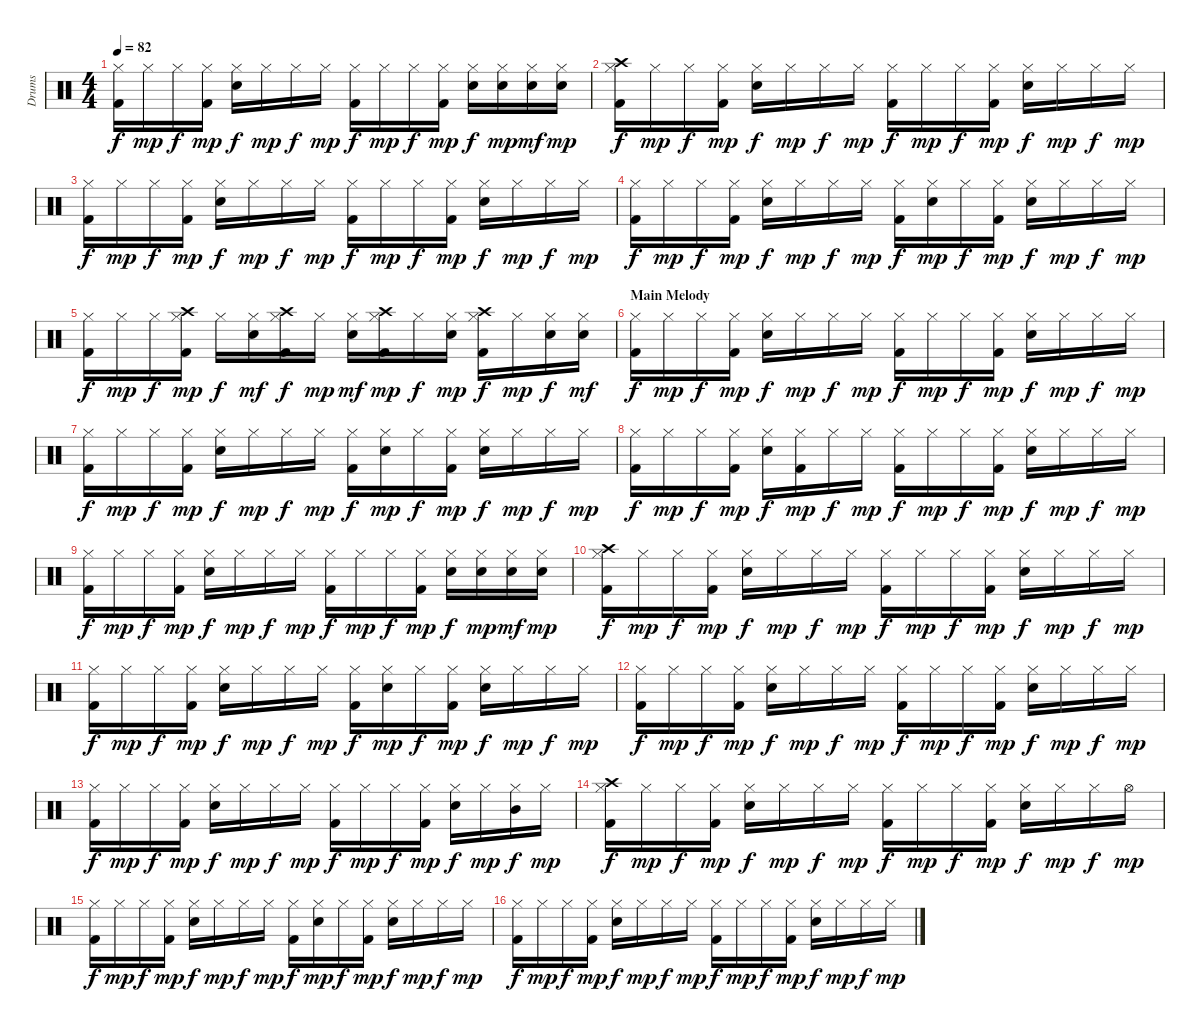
\track ("Drums" "Drums") {instrument percussion}
\staff {score}
\articulation defaults
\ts (4 4)
\tempo 82
\clef neutral
\ks c
("Hi-Hat (closed)" "Kick (hit) 2").16{dy f} "Hi-Hat (closed)".16{dy mp} "Hi-Hat (closed)".16{dy f} ("Hi-Hat (closed)" "Kick (hit) 2").16{dy mp} ("Hi-Hat (closed)" "Snare (hit) 2").16{dy f} "Hi-Hat (closed)".16{dy mp} "Hi-Hat (closed)".16{dy f} "Hi-Hat (closed)".16{dy mp} ("Hi-Hat (closed)" "Kick (hit) 2").16{dy f} "Hi-Hat (closed)".16{dy mp} "Hi-Hat (closed)".16{dy f} ("Hi-Hat (closed)" "Kick (hit) 2").16{dy mp} ("Hi-Hat (closed)" "Snare (hit) 2").16{dy f} ("Hi-Hat (closed)" "Snare (hit) 2").16{dy mp} ("Hi-Hat (closed)" "Snare (hit) 2").16{dy mf} ("Hi-Hat (closed)" "Snare (hit) 2").16{dy mp} |
("Hi-Hat (closed)" "Crash high (hit)" "Kick (hit) 2").16{dy f} "Hi-Hat (closed)".16{dy mp} "Hi-Hat (closed)".16{dy f} ("Hi-Hat (closed)" "Kick (hit) 2").16{dy mp} ("Hi-Hat (closed)" "Snare (hit) 2").16{dy f} "Hi-Hat (closed)".16{dy mp} "Hi-Hat (closed)".16{dy f} "Hi-Hat (closed)".16{dy mp} ("Hi-Hat (closed)" "Kick (hit) 2").16{dy f} "Hi-Hat (closed)".16{dy mp} "Hi-Hat (closed)".16{dy f} ("Hi-Hat (closed)" "Kick (hit) 2").16{dy mp} ("Hi-Hat (closed)" "Snare (hit) 2").16{dy f} "Hi-Hat (closed)".16{dy mp} "Hi-Hat (closed)".16{dy f} "Hi-Hat (closed)".16{dy mp} |
("Hi-Hat (closed)" "Kick (hit) 2").16{dy f} "Hi-Hat (closed)".16{dy mp} "Hi-Hat (closed)".16{dy f} ("Hi-Hat (closed)" "Kick (hit) 2").16{dy mp} ("Hi-Hat (closed)" "Snare (hit) 2").16{dy f} "Hi-Hat (closed)".16{dy mp} "Hi-Hat (closed)".16{dy f} "Hi-Hat (closed)".16{dy mp} ("Hi-Hat (closed)" "Kick (hit) 2").16{dy f} "Hi-Hat (closed)".16{dy mp} "Hi-Hat (closed)".16{dy f} ("Hi-Hat (closed)" "Kick (hit) 2").16{dy mp} ("Hi-Hat (closed)" "Snare (hit) 2").16{dy f} "Hi-Hat (closed)".16{dy mp} "Hi-Hat (closed)".16{dy f} "Hi-Hat (closed)".16{dy mp} |
("Hi-Hat (closed)" "Kick (hit) 2").16{dy f} "Hi-Hat (closed)".16{dy mp} "Hi-Hat (closed)".16{dy f} ("Hi-Hat (closed)" "Kick (hit) 2").16{dy mp} ("Hi-Hat (closed)" "Snare (hit) 2").16{dy f} "Hi-Hat (closed)".16{dy mp} "Hi-Hat (closed)".16{dy f} "Hi-Hat (closed)".16{dy mp} ("Hi-Hat (closed)" "Kick (hit) 2").16{dy f} ("Hi-Hat (closed)" "Snare (hit) 2").16{dy mp} "Hi-Hat (closed)".16{dy f} ("Hi-Hat (closed)" "Kick (hit) 2").16{dy mp} ("Hi-Hat (closed)" "Snare (hit) 2").16{dy f} "Hi-Hat (closed)".16{dy mp} "Hi-Hat (closed)".16{dy f} "Hi-Hat (closed)".16{dy mp} |
("Hi-Hat (closed)" "Kick (hit) 2").16{dy f} "Hi-Hat (closed)".16{dy mp} "Hi-Hat (closed)".16{dy f} ("Hi-Hat (closed)" "Crash high (hit)" "Kick (hit) 2").16{dy mp} "Hi-Hat (closed)".16{dy f} ("Hi-Hat (closed)" "Snare (hit) 2").16{dy mf} ("Hi-Hat (closed)" "Crash high (hit)" "Kick (hit) 2").16{dy f} "Hi-Hat (closed)".16{dy mp} ("Hi-Hat (closed)" "Snare (hit) 2").16{dy mf} ("Hi-Hat (closed)" "Crash high (hit)" "Kick (hit) 2").16{dy mp} "Hi-Hat (closed)".16{dy f} ("Hi-Hat (closed)" "Snare (hit) 2").16{dy mp} ("Hi-Hat (closed)" "Crash high (hit)" "Kick (hit) 2").16{dy f} "Hi-Hat (closed)".16{dy mp} ("Hi-Hat (closed)" "Snare (hit) 2").16{dy f} ("Hi-Hat (closed)" "Snare (hit) 2").16{dy mf} |
\section ("" "Main Melody")
("Hi-Hat (closed)" "Kick (hit) 2").16{dy f} "Hi-Hat (closed)".16{dy mp} "Hi-Hat (closed)".16{dy f} ("Hi-Hat (closed)" "Kick (hit) 2").16{dy mp} ("Hi-Hat (closed)" "Snare (hit) 2").16{dy f} "Hi-Hat (closed)".16{dy mp} "Hi-Hat (closed)".16{dy f} "Hi-Hat (closed)".16{dy mp} ("Hi-Hat (closed)" "Kick (hit) 2").16{dy f} "Hi-Hat (closed)".16{dy mp} "Hi-Hat (closed)".16{dy f} ("Hi-Hat (closed)" "Kick (hit) 2").16{dy mp} ("Hi-Hat (closed)" "Snare (hit) 2").16{dy f} "Hi-Hat (closed)".16{dy mp} "Hi-Hat (closed)".16{dy f} "Hi-Hat (closed)".16{dy mp} |
("Hi-Hat (closed)" "Kick (hit) 2").16{dy f} "Hi-Hat (closed)".16{dy mp} "Hi-Hat (closed)".16{dy f} ("Hi-Hat (closed)" "Kick (hit) 2").16{dy mp} ("Hi-Hat (closed)" "Snare (hit) 2").16{dy f} "Hi-Hat (closed)".16{dy mp} "Hi-Hat (closed)".16{dy f} "Hi-Hat (closed)".16{dy mp} ("Hi-Hat (closed)" "Kick (hit) 2").16{dy f} ("Hi-Hat (closed)" "Snare (hit) 2").16{dy mp} "Hi-Hat (closed)".16{dy f} ("Hi-Hat (closed)" "Kick (hit) 2").16{dy mp} ("Hi-Hat (closed)" "Snare (hit) 2").16{dy f} "Hi-Hat (closed)".16{dy mp} "Hi-Hat (closed)".16{dy f} "Hi-Hat (closed)".16{dy mp} |
("Hi-Hat (closed)" "Kick (hit) 2").16{dy f} "Hi-Hat (closed)".16{dy mp} "Hi-Hat (closed)".16{dy f} ("Hi-Hat (closed)" "Kick (hit) 2").16{dy mp} ("Hi-Hat (closed)" "Snare (hit) 2").16{dy f} ("Hi-Hat (closed)" "Kick (hit) 2").16{dy mp} "Hi-Hat (closed)".16{dy f} "Hi-Hat (closed)".16{dy mp} ("Hi-Hat (closed)" "Kick (hit) 2").16{dy f} "Hi-Hat (closed)".16{dy mp} "Hi-Hat (closed)".16{dy f} ("Hi-Hat (closed)" "Kick (hit) 2").16{dy mp} ("Hi-Hat (closed)" "Snare (hit) 2").16{dy f} "Hi-Hat (closed)".16{dy mp} "Hi-Hat (closed)".16{dy f} "Hi-Hat (closed)".16{dy mp} |
("Hi-Hat (closed)" "Kick (hit) 2").16{dy f} "Hi-Hat (closed)".16{dy mp} "Hi-Hat (closed)".16{dy f} ("Hi-Hat (closed)" "Kick (hit) 2").16{dy mp} ("Hi-Hat (closed)" "Snare (hit) 2").16{dy f} "Hi-Hat (closed)".16{dy mp} "Hi-Hat (closed)".16{dy f} "Hi-Hat (closed)".16{dy mp} ("Hi-Hat (closed)" "Kick (hit) 2").16{dy f} "Hi-Hat (closed)".16{dy mp} "Hi-Hat (closed)".16{dy f} ("Hi-Hat (closed)" "Kick (hit) 2").16{dy mp} ("Hi-Hat (closed)" "Snare (hit) 2").16{dy f} ("Hi-Hat (closed)" "Snare (hit) 2").16{dy mp} ("Hi-Hat (closed)" "Snare (hit) 2").16{dy mf} ("Hi-Hat (closed)" "Snare (hit) 2").16{dy mp} |
("Hi-Hat (closed)" "Crash high (hit)" "Kick (hit) 2").16{dy f} "Hi-Hat (closed)".16{dy mp} "Hi-Hat (closed)".16{dy f} ("Hi-Hat (closed)" "Kick (hit) 2").16{dy mp} ("Hi-Hat (closed)" "Snare (hit) 2").16{dy f} "Hi-Hat (closed)".16{dy mp} "Hi-Hat (closed)".16{dy f} "Hi-Hat (closed)".16{dy mp} ("Hi-Hat (closed)" "Kick (hit) 2").16{dy f} "Hi-Hat (closed)".16{dy mp} "Hi-Hat (closed)".16{dy f} ("Hi-Hat (closed)" "Kick (hit) 2").16{dy mp} ("Hi-Hat (closed)" "Snare (hit) 2").16{dy f} "Hi-Hat (closed)".16{dy mp} "Hi-Hat (closed)".16{dy f} "Hi-Hat (closed)".16{dy mp} |
("Hi-Hat (closed)" "Kick (hit) 2").16{dy f} "Hi-Hat (closed)".16{dy mp} "Hi-Hat (closed)".16{dy f} ("Hi-Hat (closed)" "Kick (hit) 2").16{dy mp} ("Hi-Hat (closed)" "Snare (hit) 2").16{dy f} "Hi-Hat (closed)".16{dy mp} "Hi-Hat (closed)".16{dy f} "Hi-Hat (closed)".16{dy mp} ("Hi-Hat (closed)" "Kick (hit) 2").16{dy f} ("Hi-Hat (closed)" "Snare (hit) 2").16{dy mp} "Hi-Hat (closed)".16{dy f} ("Hi-Hat (closed)" "Kick (hit) 2").16{dy mp} ("Hi-Hat (closed)" "Snare (hit) 2").16{dy f} "Hi-Hat (closed)".16{dy mp} "Hi-Hat (closed)".16{dy f} "Hi-Hat (closed)".16{dy mp} |
("Hi-Hat (closed)" "Kick (hit) 2").16{dy f} "Hi-Hat (closed)".16{dy mp} "Hi-Hat (closed)".16{dy f} ("Hi-Hat (closed)" "Kick (hit) 2").16{dy mp} ("Hi-Hat (closed)" "Snare (hit) 2").16{dy f} "Hi-Hat (closed)".16{dy mp} "Hi-Hat (closed)".16{dy f} "Hi-Hat (closed)".16{dy mp} ("Hi-Hat (closed)" "Kick (hit) 2").16{dy f} "Hi-Hat (closed)".16{dy mp} "Hi-Hat (closed)".16{dy f} ("Hi-Hat (closed)" "Kick (hit) 2").16{dy mp} ("Hi-Hat (closed)" "Snare (hit) 2").16{dy f} "Hi-Hat (closed)".16{dy mp} "Hi-Hat (closed)".16{dy f} "Hi-Hat (closed)".16{dy mp} |
("Hi-Hat (closed)" "Kick (hit) 2").16{dy f} "Hi-Hat (closed)".16{dy mp} "Hi-Hat (closed)".16{dy f} ("Hi-Hat (closed)" "Kick (hit) 2").16{dy mp} ("Hi-Hat (closed)" "Snare (hit) 2").16{dy f} "Hi-Hat (closed)".16{dy mp} "Hi-Hat (closed)".16{dy f} "Hi-Hat (closed)".16{dy mp} ("Hi-Hat (closed)" "Kick (hit) 2").16{dy f} "Hi-Hat (closed)".16{dy mp} "Hi-Hat (closed)".16{dy f} ("Hi-Hat (closed)" "Kick (hit) 2").16{dy mp} ("Hi-Hat (closed)" "Snare (hit) 2").16{dy f} "Hi-Hat (closed)".16{dy mp} ("Hi-Hat (closed)" "Mid Tom (hit)").16{dy f} "Hi-Hat (closed)".16{dy mp} |
("Hi-Hat (closed)" "Crash high (hit)" "Kick (hit) 2").16{dy f} "Hi-Hat (closed)".16{dy mp} "Hi-Hat (closed)".16{dy f} ("Hi-Hat (closed)" "Kick (hit) 2").16{dy mp} ("Hi-Hat (closed)" "Snare (hit) 2").16{dy f} "Hi-Hat (closed)".16{dy mp} "Hi-Hat (closed)".16{dy f} "Hi-Hat (closed)".16{dy mp} ("Hi-Hat (closed)" "Kick (hit) 2").16{dy f} "Hi-Hat (closed)".16{dy mp} "Hi-Hat (closed)".16{dy f} ("Hi-Hat (closed)" "Kick (hit) 2").16{dy mp} ("Hi-Hat (closed)" "Snare (hit) 2").16{dy f} "Hi-Hat (closed)".16{dy mp} "Hi-Hat (closed)".16{dy f} "Hi-Hat (open)".16{dy mp} |
("Hi-Hat (closed)" "Kick (hit) 2").16{dy f} "Hi-Hat (closed)".16{dy mp} "Hi-Hat (closed)".16{dy f} ("Hi-Hat (closed)" "Kick (hit) 2").16{dy mp} ("Hi-Hat (closed)" "Snare (hit) 2").16{dy f} "Hi-Hat (closed)".16{dy mp} "Hi-Hat (closed)".16{dy f} "Hi-Hat (closed)".16{dy mp} ("Hi-Hat (closed)" "Kick (hit) 2").16{dy f} ("Hi-Hat (closed)" "Snare (hit) 2").16{dy mp} "Hi-Hat (closed)".16{dy f} ("Hi-Hat (closed)" "Kick (hit) 2").16{dy mp} ("Hi-Hat (closed)" "Snare (hit) 2").16{dy f} "Hi-Hat (closed)".16{dy mp} "Hi-Hat (closed)".16{dy f} "Hi-Hat (closed)".16{dy mp} |
("Hi-Hat (closed)" "Kick (hit) 2").16{dy f} "Hi-Hat (closed)".16{dy mp} "Hi-Hat (closed)".16{dy f} ("Hi-Hat (closed)" "Kick (hit) 2").16{dy mp} ("Hi-Hat (closed)" "Snare (hit) 2").16{dy f} "Hi-Hat (closed)".16{dy mp} "Hi-Hat (closed)".16{dy f} "Hi-Hat (closed)".16{dy mp} ("Hi-Hat (closed)" "Kick (hit) 2").16{dy f} "Hi-Hat (closed)".16{dy mp} "Hi-Hat (closed)".16{dy f} ("Hi-Hat (closed)" "Kick (hit) 2").16{dy mp} ("Hi-Hat (closed)" "Snare (hit) 2").16{dy f} "Hi-Hat (closed)".16{dy mp} "Hi-Hat (closed)".16{dy f} "Hi-Hat (closed)".16{dy mp}
